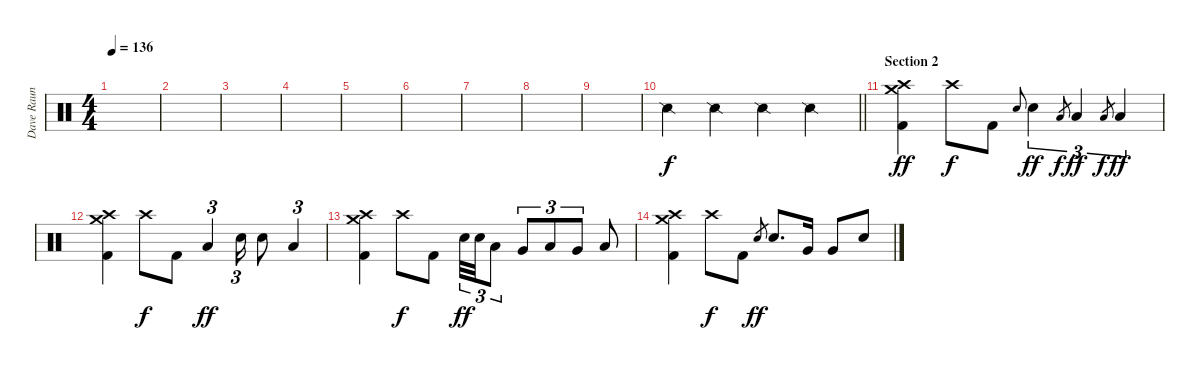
\track ("Dave Raun" "Dave Raun") {instrument percussion}
\staff {score}
\articulation defaults
\ts (4 4)
\tempo 136
\clef neutral
\ks c
|
|
|
|
|
|
|
|
|
\barLineRight lightlight "Snare (side stick) 2".4{dy f} "Snare (side stick) 2".4 "Snare (side stick) 2".4 "Snare (side stick) 2".4
|
\section ("" "Section 2")
("Crash high (hit)" "Crash medium (hit)" "Kick (hit) 2").4{dy ff} "Crash high (hit)".8{dy f} "Kick (hit) 2".8 "Electric Snare (hit)".8{gr onbeat} "Electric Snare (hit)".4{tu (3 2) dy ff} "Low Tom (hit)".8{gr dy f} "Low Tom (hit)".4{tu (3 2) dy ff} "Low Floor Tom (hit)".8{gr dy f} "Low Floor Tom (hit)".4{tu (3 2) dy ff} |
("Crash high (hit)" "Crash medium (hit)" "Kick (hit) 2").4 "Crash high (hit)".8{dy f} "Kick (hit) 2".8 "Low Tom (hit)".4{tu (3 2) dy ff} "Electric Snare (hit)".16{tu (3 2)} "Electric Snare (hit)".8 "Low Tom (hit)".4{tu (3 2)} |
("Crash high (hit)" "Crash medium (hit)" "Kick (hit) 2").4 "Crash high (hit)".8{dy f} "Kick (hit) 2".8 "Electric Snare (hit)".32{tu (3 2) dy ff} "Electric Snare (hit)".32{tu (3 2)} "Low Tom (hit)".8{tu (3 2)} "Very Low Tom (hit)".8{tu (3 2)} "Low Floor Tom (hit)".8{tu (3 2)} "Very Low Tom (hit)".8{tu (3 2)} "Low Floor Tom (hit)".8 |
("Crash high (hit)" "Crash medium (hit)" "Kick (hit) 2").4 "Crash high (hit)".8{dy f} "Kick (hit) 2".8 "Electric Snare (hit)".8{gr dy ff} "Electric Snare (hit)".8{d} "Very Low Tom (hit)".16 "Very Low Tom (hit)".8 "Electric Snare (hit)".8
